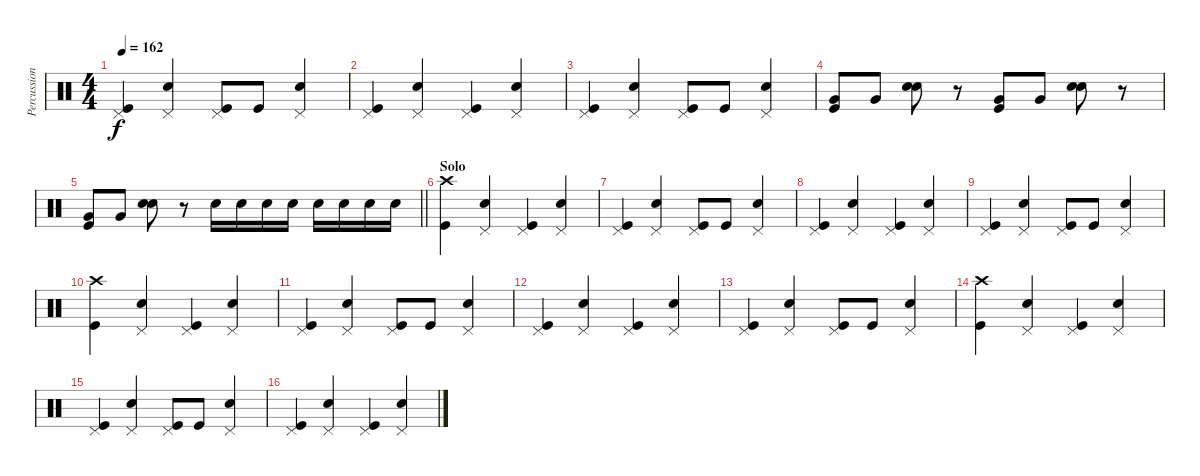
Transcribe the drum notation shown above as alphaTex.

\track ("Percussioni" "Percussion") {instrument percussion}
\staff {score}
\articulation defaults
\ts (4 4)
\tempo 162
\clef neutral
\ks c
("Pedal Hi-Hat (hit)" "Kick (hit)").4{dy f} ("Pedal Hi-Hat (hit)" "Snare (hit) 2").4 ("Pedal Hi-Hat (hit)" "Kick (hit)").8 "Kick (hit)".8 ("Pedal Hi-Hat (hit)" "Snare (hit) 2").4 |
("Pedal Hi-Hat (hit)" "Kick (hit)").4 ("Pedal Hi-Hat (hit)" "Snare (hit) 2").4 ("Pedal Hi-Hat (hit)" "Kick (hit)").4 ("Pedal Hi-Hat (hit)" "Snare (hit) 2").4 |
("Pedal Hi-Hat (hit)" "Kick (hit)").4 ("Pedal Hi-Hat (hit)" "Snare (hit) 2").4 ("Pedal Hi-Hat (hit)" "Kick (hit)").8 "Kick (hit)".8 ("Pedal Hi-Hat (hit)" "Snare (hit) 2").4 |
("Very Low Tom (hit)" "Kick (hit)").8 "Very Low Tom (hit)".8 ("Snare (hit) 2" "Snare (hit) 2").8 r.8 ("Very Low Tom (hit)" "Kick (hit)").8 "Very Low Tom (hit)".8 ("Snare (hit) 2" "Snare (hit) 2").8 r.8 |
\barLineRight lightlight
("Very Low Tom (hit)" "Kick (hit)").8 "Very Low Tom (hit)".8 ("Snare (hit) 2" "Snare (hit) 2").8 r.8 "Snare (hit) 2".16 "Snare (hit) 2".16 "Snare (hit) 2".16 "Snare (hit) 2".16 "Snare (hit) 2".16 "Snare (hit) 2".16 "Snare (hit) 2".16 "Snare (hit) 2".16 |
\section ("" "Solo")
("Crash high (hit)" "Kick (hit)").4 ("Pedal Hi-Hat (hit)" "Snare (hit) 2").4 ("Pedal Hi-Hat (hit)" "Kick (hit)").4 ("Pedal Hi-Hat (hit)" "Snare (hit) 2").4 |
("Pedal Hi-Hat (hit)" "Kick (hit)").4 ("Pedal Hi-Hat (hit)" "Snare (hit) 2").4 ("Pedal Hi-Hat (hit)" "Kick (hit)").8 "Kick (hit)".8 ("Pedal Hi-Hat (hit)" "Snare (hit) 2").4 |
("Pedal Hi-Hat (hit)" "Kick (hit)").4 ("Pedal Hi-Hat (hit)" "Snare (hit) 2").4 ("Pedal Hi-Hat (hit)" "Kick (hit)").4 ("Pedal Hi-Hat (hit)" "Snare (hit) 2").4 |
("Pedal Hi-Hat (hit)" "Kick (hit)").4 ("Pedal Hi-Hat (hit)" "Snare (hit) 2").4 ("Pedal Hi-Hat (hit)" "Kick (hit)").8 "Kick (hit)".8 ("Pedal Hi-Hat (hit)" "Snare (hit) 2").4 |
("Crash high (hit)" "Kick (hit)").4 ("Pedal Hi-Hat (hit)" "Snare (hit) 2").4 ("Pedal Hi-Hat (hit)" "Kick (hit)").4 ("Pedal Hi-Hat (hit)" "Snare (hit) 2").4 |
("Pedal Hi-Hat (hit)" "Kick (hit)").4 ("Pedal Hi-Hat (hit)" "Snare (hit) 2").4 ("Pedal Hi-Hat (hit)" "Kick (hit)").8 "Kick (hit)".8 ("Pedal Hi-Hat (hit)" "Snare (hit) 2").4 |
("Pedal Hi-Hat (hit)" "Kick (hit)").4 ("Pedal Hi-Hat (hit)" "Snare (hit) 2").4 ("Pedal Hi-Hat (hit)" "Kick (hit)").4 ("Pedal Hi-Hat (hit)" "Snare (hit) 2").4 |
("Pedal Hi-Hat (hit)" "Kick (hit)").4 ("Pedal Hi-Hat (hit)" "Snare (hit) 2").4 ("Pedal Hi-Hat (hit)" "Kick (hit)").8 "Kick (hit)".8 ("Pedal Hi-Hat (hit)" "Snare (hit) 2").4 |
("Crash high (hit)" "Kick (hit)").4 ("Pedal Hi-Hat (hit)" "Snare (hit) 2").4 ("Pedal Hi-Hat (hit)" "Kick (hit)").4 ("Pedal Hi-Hat (hit)" "Snare (hit) 2").4 |
("Pedal Hi-Hat (hit)" "Kick (hit)").4 ("Pedal Hi-Hat (hit)" "Snare (hit) 2").4 ("Pedal Hi-Hat (hit)" "Kick (hit)").8 "Kick (hit)".8 ("Pedal Hi-Hat (hit)" "Snare (hit) 2").4 |
("Pedal Hi-Hat (hit)" "Kick (hit)").4 ("Pedal Hi-Hat (hit)" "Snare (hit) 2").4 ("Pedal Hi-Hat (hit)" "Kick (hit)").4 ("Pedal Hi-Hat (hit)" "Snare (hit) 2").4
